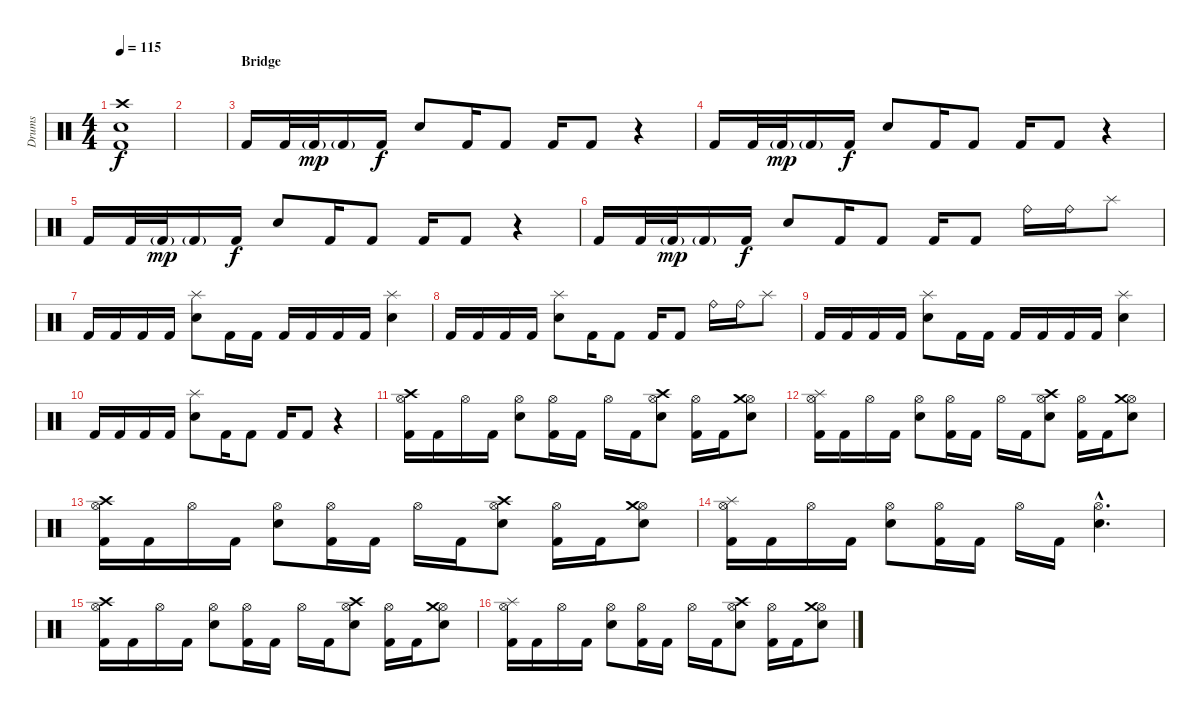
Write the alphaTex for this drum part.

\track ("Drums" "Drums") {instrument percussion}
\staff {score}
\articulation defaults
\ts (4 4)
\tempo 115
\clef neutral
\ks c
("Kick (hit) 2" "Crash high (hit)" "Electric Snare (hit)").1{dy f} |
|
\section ("" "Bridge")
"Kick (hit) 2".16 "Kick (hit) 2".32 "Kick (hit) 2"{g}.32{dy mp} "Kick (hit) 2"{g}.16 "Kick (hit) 2".16{dy f} "Electric Snare (hit)".8 "Kick (hit) 2".16 "Kick (hit) 2".8 "Kick (hit) 2".16 "Kick (hit) 2".8 r.4 |
"Kick (hit) 2".16 "Kick (hit) 2".32 "Kick (hit) 2"{g}.32{dy mp} "Kick (hit) 2"{g}.16 "Kick (hit) 2".16{dy f} "Electric Snare (hit)".8 "Kick (hit) 2".16 "Kick (hit) 2".8 "Kick (hit) 2".16 "Kick (hit) 2".8 r.4 |
"Kick (hit) 2".16 "Kick (hit) 2".32 "Kick (hit) 2"{g}.32{dy mp} "Kick (hit) 2"{g}.16 "Kick (hit) 2".16{dy f} "Electric Snare (hit)".8 "Kick (hit) 2".16 "Kick (hit) 2".8 "Kick (hit) 2".16 "Kick (hit) 2".8 r.4 |
"Kick (hit) 2".16 "Kick (hit) 2".32 "Kick (hit) 2"{g}.32{dy mp} "Kick (hit) 2"{g}.16 "Kick (hit) 2".16{dy f} "Electric Snare (hit)".8 "Kick (hit) 2".16 "Kick (hit) 2".8 "Kick (hit) 2".16 "Kick (hit) 2".8 "Ride (bell)".16 "Ride (bell)".16 "Splash (hit)".8 |
"Kick (hit) 2".16 "Kick (hit) 2".16 "Kick (hit) 2".16 "Kick (hit) 2".16 ("Electric Snare (hit)" "Splash (hit)").8 "Kick (hit) 2".16 "Kick (hit) 2".16 "Kick (hit) 2".16 "Kick (hit) 2".16 "Kick (hit) 2".16 "Kick (hit) 2".16 ("Electric Snare (hit)" "Splash (hit)").4 |
"Kick (hit) 2".16 "Kick (hit) 2".16 "Kick (hit) 2".16 "Kick (hit) 2".16 ("Electric Snare (hit)" "Splash (hit)").8 "Kick (hit) 2".16 "Kick (hit) 2".8 "Kick (hit) 2".16 "Kick (hit) 2".8 "Ride (bell)".16 "Ride (bell)".16 "Splash (hit)".8 |
"Kick (hit) 2".16 "Kick (hit) 2".16 "Kick (hit) 2".16 "Kick (hit) 2".16 ("Electric Snare (hit)" "Splash (hit)").8 "Kick (hit) 2".16 "Kick (hit) 2".16 "Kick (hit) 2".16 "Kick (hit) 2".16 "Kick (hit) 2".16 "Kick (hit) 2".16 ("Electric Snare (hit)" "Splash (hit)").4 |
"Kick (hit) 2".16 "Kick (hit) 2".16 "Kick (hit) 2".16 "Kick (hit) 2".16 ("Electric Snare (hit)" "Splash (hit)").8 "Kick (hit) 2".16 "Kick (hit) 2".8 "Kick (hit) 2".16 "Kick (hit) 2".8 r.4 |
("Kick (hit) 2" "Hi-Hat (open)" "Crash high (hit)").16 "Kick (hit) 2".16 "Hi-Hat (open)".16 "Kick (hit) 2".16 ("Electric Snare (hit)" "Hi-Hat (open)").8 ("Kick (hit) 2" "Hi-Hat (open)").16 "Kick (hit) 2".16 "Hi-Hat (open)".16 "Kick (hit) 2".16 ("Electric Snare (hit)" "Hi-Hat (open)" "Crash high (hit)").8 ("Kick (hit) 2" "Hi-Hat (open)").16 "Kick (hit) 2".16 ("Electric Snare (hit)" "Hi-Hat (open)" "Crash medium (hit)").8 |
("Kick (hit) 2" "Hi-Hat (open)" "Splash (hit)").16 "Kick (hit) 2".16 "Hi-Hat (open)".16 "Kick (hit) 2".16 ("Electric Snare (hit)" "Hi-Hat (open)").8 ("Kick (hit) 2" "Hi-Hat (open)").16 "Kick (hit) 2".16 "Hi-Hat (open)".16 "Kick (hit) 2".16 ("Electric Snare (hit)" "Hi-Hat (open)" "Crash high (hit)").8 ("Kick (hit) 2" "Hi-Hat (open)").16 "Kick (hit) 2".16 ("Electric Snare (hit)" "Hi-Hat (open)" "Crash medium (hit)").8 |
("Kick (hit) 2" "Hi-Hat (open)" "Crash high (hit)").16 "Kick (hit) 2".16 "Hi-Hat (open)".16 "Kick (hit) 2".16 ("Electric Snare (hit)" "Hi-Hat (open)").8 ("Kick (hit) 2" "Hi-Hat (open)").16 "Kick (hit) 2".16 "Hi-Hat (open)".16 "Kick (hit) 2".16 ("Electric Snare (hit)" "Hi-Hat (open)" "Crash high (hit)").8 ("Kick (hit) 2" "Hi-Hat (open)").16 "Kick (hit) 2".16 ("Electric Snare (hit)" "Hi-Hat (open)" "Crash medium (hit)").8 |
("Kick (hit) 2" "Hi-Hat (open)" "Splash (hit)").16 "Kick (hit) 2".16 "Hi-Hat (open)".16 "Kick (hit) 2".16 ("Electric Snare (hit)" "Hi-Hat (open)").8 ("Kick (hit) 2" "Hi-Hat (open)").16 "Kick (hit) 2".16 "Hi-Hat (open)".16 "Kick (hit) 2".16 ("Electric Snare (hit)"{hac} "Hi-Hat (open)"{hac}).4{d} |
("Kick (hit) 2" "Hi-Hat (open)" "Crash high (hit)").16 "Kick (hit) 2".16 "Hi-Hat (open)".16 "Kick (hit) 2".16 ("Electric Snare (hit)" "Hi-Hat (open)").8 ("Kick (hit) 2" "Hi-Hat (open)").16 "Kick (hit) 2".16 "Hi-Hat (open)".16 "Kick (hit) 2".16 ("Electric Snare (hit)" "Hi-Hat (open)" "Crash high (hit)").8 ("Kick (hit) 2" "Hi-Hat (open)").16 "Kick (hit) 2".16 ("Electric Snare (hit)" "Hi-Hat (open)" "Crash medium (hit)").8 |
("Kick (hit) 2" "Hi-Hat (open)" "Splash (hit)").16 "Kick (hit) 2".16 "Hi-Hat (open)".16 "Kick (hit) 2".16 ("Electric Snare (hit)" "Hi-Hat (open)").8 ("Kick (hit) 2" "Hi-Hat (open)").16 "Kick (hit) 2".16 "Hi-Hat (open)".16 "Kick (hit) 2".16 ("Electric Snare (hit)" "Hi-Hat (open)" "Crash high (hit)").8 ("Kick (hit) 2" "Hi-Hat (open)").16 "Kick (hit) 2".16 ("Electric Snare (hit)" "Hi-Hat (open)" "Crash medium (hit)").8
